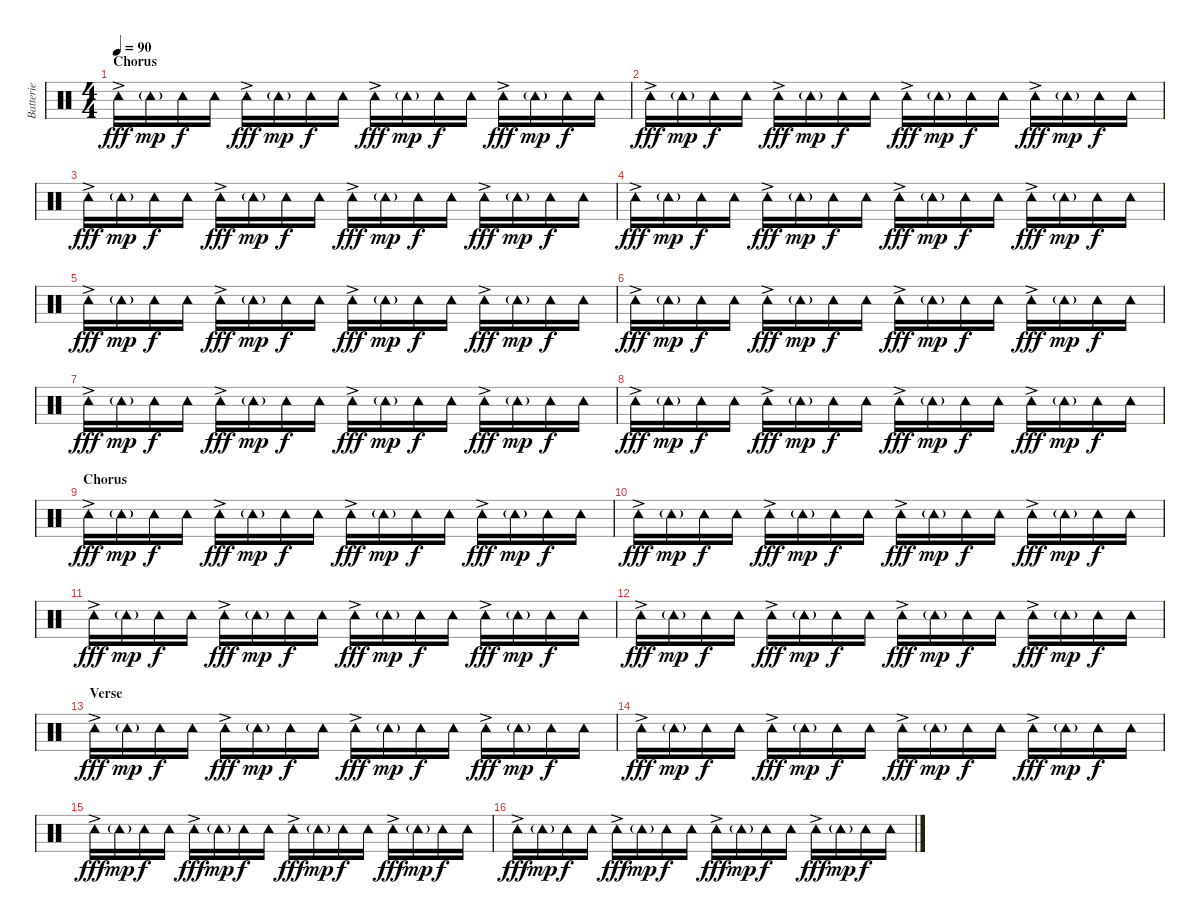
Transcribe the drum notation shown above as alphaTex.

\track ("Batterie" "Batterie") {instrument percussion}
\staff {score}
\articulation defaults
\ts (4 4)
\section ("" "Chorus")
\tempo 90
\clef neutral
\ks c "Tambourine (hit)"{ac}.16{dy fff} "Tambourine (hit)"{g}.16{dy mp} "Tambourine (hit)".16{dy f} "Tambourine (hit)".16 "Tambourine (hit)"{ac}.16{dy fff} "Tambourine (hit)"{g}.16{dy mp} "Tambourine (hit)".16{dy f} "Tambourine (hit)".16 "Tambourine (hit)"{ac}.16{dy fff} "Tambourine (hit)"{g}.16{dy mp} "Tambourine (hit)".16{dy f} "Tambourine (hit)".16 "Tambourine (hit)"{ac}.16{dy fff} "Tambourine (hit)"{g}.16{dy mp} "Tambourine (hit)".16{dy f} "Tambourine (hit)".16
|
"Tambourine (hit)"{ac}.16{dy fff} "Tambourine (hit)"{g}.16{dy mp} "Tambourine (hit)".16{dy f} "Tambourine (hit)".16 "Tambourine (hit)"{ac}.16{dy fff} "Tambourine (hit)"{g}.16{dy mp} "Tambourine (hit)".16{dy f} "Tambourine (hit)".16 "Tambourine (hit)"{ac}.16{dy fff} "Tambourine (hit)"{g}.16{dy mp} "Tambourine (hit)".16{dy f} "Tambourine (hit)".16 "Tambourine (hit)"{ac}.16{dy fff} "Tambourine (hit)"{g}.16{dy mp} "Tambourine (hit)".16{dy f} "Tambourine (hit)".16 |
"Tambourine (hit)"{ac}.16{dy fff} "Tambourine (hit)"{g}.16{dy mp} "Tambourine (hit)".16{dy f} "Tambourine (hit)".16 "Tambourine (hit)"{ac}.16{dy fff} "Tambourine (hit)"{g}.16{dy mp} "Tambourine (hit)".16{dy f} "Tambourine (hit)".16 "Tambourine (hit)"{ac}.16{dy fff} "Tambourine (hit)"{g}.16{dy mp} "Tambourine (hit)".16{dy f} "Tambourine (hit)".16 "Tambourine (hit)"{ac}.16{dy fff} "Tambourine (hit)"{g}.16{dy mp} "Tambourine (hit)".16{dy f} "Tambourine (hit)".16 |
"Tambourine (hit)"{ac}.16{dy fff} "Tambourine (hit)"{g}.16{dy mp} "Tambourine (hit)".16{dy f} "Tambourine (hit)".16 "Tambourine (hit)"{ac}.16{dy fff} "Tambourine (hit)"{g}.16{dy mp} "Tambourine (hit)".16{dy f} "Tambourine (hit)".16 "Tambourine (hit)"{ac}.16{dy fff} "Tambourine (hit)"{g}.16{dy mp} "Tambourine (hit)".16{dy f} "Tambourine (hit)".16 "Tambourine (hit)"{ac}.16{dy fff} "Tambourine (hit)"{g}.16{dy mp} "Tambourine (hit)".16{dy f} "Tambourine (hit)".16 |
\section ("" "")
"Tambourine (hit)"{ac}.16{dy fff} "Tambourine (hit)"{g}.16{dy mp} "Tambourine (hit)".16{dy f} "Tambourine (hit)".16 "Tambourine (hit)"{ac}.16{dy fff} "Tambourine (hit)"{g}.16{dy mp} "Tambourine (hit)".16{dy f} "Tambourine (hit)".16 "Tambourine (hit)"{ac}.16{dy fff} "Tambourine (hit)"{g}.16{dy mp} "Tambourine (hit)".16{dy f} "Tambourine (hit)".16 "Tambourine (hit)"{ac}.16{dy fff} "Tambourine (hit)"{g}.16{dy mp} "Tambourine (hit)".16{dy f} "Tambourine (hit)".16 |
"Tambourine (hit)"{ac}.16{dy fff} "Tambourine (hit)"{g}.16{dy mp} "Tambourine (hit)".16{dy f} "Tambourine (hit)".16 "Tambourine (hit)"{ac}.16{dy fff} "Tambourine (hit)"{g}.16{dy mp} "Tambourine (hit)".16{dy f} "Tambourine (hit)".16 "Tambourine (hit)"{ac}.16{dy fff} "Tambourine (hit)"{g}.16{dy mp} "Tambourine (hit)".16{dy f} "Tambourine (hit)".16 "Tambourine (hit)"{ac}.16{dy fff} "Tambourine (hit)"{g}.16{dy mp} "Tambourine (hit)".16{dy f} "Tambourine (hit)".16 |
"Tambourine (hit)"{ac}.16{dy fff} "Tambourine (hit)"{g}.16{dy mp} "Tambourine (hit)".16{dy f} "Tambourine (hit)".16 "Tambourine (hit)"{ac}.16{dy fff} "Tambourine (hit)"{g}.16{dy mp} "Tambourine (hit)".16{dy f} "Tambourine (hit)".16 "Tambourine (hit)"{ac}.16{dy fff} "Tambourine (hit)"{g}.16{dy mp} "Tambourine (hit)".16{dy f} "Tambourine (hit)".16 "Tambourine (hit)"{ac}.16{dy fff} "Tambourine (hit)"{g}.16{dy mp} "Tambourine (hit)".16{dy f} "Tambourine (hit)".16 |
"Tambourine (hit)"{ac}.16{dy fff} "Tambourine (hit)"{g}.16{dy mp} "Tambourine (hit)".16{dy f} "Tambourine (hit)".16 "Tambourine (hit)"{ac}.16{dy fff} "Tambourine (hit)"{g}.16{dy mp} "Tambourine (hit)".16{dy f} "Tambourine (hit)".16 "Tambourine (hit)"{ac}.16{dy fff} "Tambourine (hit)"{g}.16{dy mp} "Tambourine (hit)".16{dy f} "Tambourine (hit)".16 "Tambourine (hit)"{ac}.16{dy fff} "Tambourine (hit)"{g}.16{dy mp} "Tambourine (hit)".16{dy f} "Tambourine (hit)".16 |
\section ("" "Chorus")
"Tambourine (hit)"{ac}.16{dy fff} "Tambourine (hit)"{g}.16{dy mp} "Tambourine (hit)".16{dy f} "Tambourine (hit)".16 "Tambourine (hit)"{ac}.16{dy fff} "Tambourine (hit)"{g}.16{dy mp} "Tambourine (hit)".16{dy f} "Tambourine (hit)".16 "Tambourine (hit)"{ac}.16{dy fff} "Tambourine (hit)"{g}.16{dy mp} "Tambourine (hit)".16{dy f} "Tambourine (hit)".16 "Tambourine (hit)"{ac}.16{dy fff} "Tambourine (hit)"{g}.16{dy mp} "Tambourine (hit)".16{dy f} "Tambourine (hit)".16 |
"Tambourine (hit)"{ac}.16{dy fff} "Tambourine (hit)"{g}.16{dy mp} "Tambourine (hit)".16{dy f} "Tambourine (hit)".16 "Tambourine (hit)"{ac}.16{dy fff} "Tambourine (hit)"{g}.16{dy mp} "Tambourine (hit)".16{dy f} "Tambourine (hit)".16 "Tambourine (hit)"{ac}.16{dy fff} "Tambourine (hit)"{g}.16{dy mp} "Tambourine (hit)".16{dy f} "Tambourine (hit)".16 "Tambourine (hit)"{ac}.16{dy fff} "Tambourine (hit)"{g}.16{dy mp} "Tambourine (hit)".16{dy f} "Tambourine (hit)".16 |
"Tambourine (hit)"{ac}.16{dy fff} "Tambourine (hit)"{g}.16{dy mp} "Tambourine (hit)".16{dy f} "Tambourine (hit)".16 "Tambourine (hit)"{ac}.16{dy fff} "Tambourine (hit)"{g}.16{dy mp} "Tambourine (hit)".16{dy f} "Tambourine (hit)".16 "Tambourine (hit)"{ac}.16{dy fff} "Tambourine (hit)"{g}.16{dy mp} "Tambourine (hit)".16{dy f} "Tambourine (hit)".16 "Tambourine (hit)"{ac}.16{dy fff} "Tambourine (hit)"{g}.16{dy mp} "Tambourine (hit)".16{dy f} "Tambourine (hit)".16 |
"Tambourine (hit)"{ac}.16{dy fff} "Tambourine (hit)"{g}.16{dy mp} "Tambourine (hit)".16{dy f} "Tambourine (hit)".16 "Tambourine (hit)"{ac}.16{dy fff} "Tambourine (hit)"{g}.16{dy mp} "Tambourine (hit)".16{dy f} "Tambourine (hit)".16 "Tambourine (hit)"{ac}.16{dy fff} "Tambourine (hit)"{g}.16{dy mp} "Tambourine (hit)".16{dy f} "Tambourine (hit)".16 "Tambourine (hit)"{ac}.16{dy fff} "Tambourine (hit)"{g}.16{dy mp} "Tambourine (hit)".16{dy f} "Tambourine (hit)".16 |
\section ("" "Verse")
"Tambourine (hit)"{ac}.16{dy fff} "Tambourine (hit)"{g}.16{dy mp} "Tambourine (hit)".16{dy f} "Tambourine (hit)".16 "Tambourine (hit)"{ac}.16{dy fff} "Tambourine (hit)"{g}.16{dy mp} "Tambourine (hit)".16{dy f} "Tambourine (hit)".16 "Tambourine (hit)"{ac}.16{dy fff} "Tambourine (hit)"{g}.16{dy mp} "Tambourine (hit)".16{dy f} "Tambourine (hit)".16 "Tambourine (hit)"{ac}.16{dy fff} "Tambourine (hit)"{g}.16{dy mp} "Tambourine (hit)".16{dy f} "Tambourine (hit)".16 |
"Tambourine (hit)"{ac}.16{dy fff} "Tambourine (hit)"{g}.16{dy mp} "Tambourine (hit)".16{dy f} "Tambourine (hit)".16 "Tambourine (hit)"{ac}.16{dy fff} "Tambourine (hit)"{g}.16{dy mp} "Tambourine (hit)".16{dy f} "Tambourine (hit)".16 "Tambourine (hit)"{ac}.16{dy fff} "Tambourine (hit)"{g}.16{dy mp} "Tambourine (hit)".16{dy f} "Tambourine (hit)".16 "Tambourine (hit)"{ac}.16{dy fff} "Tambourine (hit)"{g}.16{dy mp} "Tambourine (hit)".16{dy f} "Tambourine (hit)".16 |
"Tambourine (hit)"{ac}.16{dy fff} "Tambourine (hit)"{g}.16{dy mp} "Tambourine (hit)".16{dy f} "Tambourine (hit)".16 "Tambourine (hit)"{ac}.16{dy fff} "Tambourine (hit)"{g}.16{dy mp} "Tambourine (hit)".16{dy f} "Tambourine (hit)".16 "Tambourine (hit)"{ac}.16{dy fff} "Tambourine (hit)"{g}.16{dy mp} "Tambourine (hit)".16{dy f} "Tambourine (hit)".16 "Tambourine (hit)"{ac}.16{dy fff} "Tambourine (hit)"{g}.16{dy mp} "Tambourine (hit)".16{dy f} "Tambourine (hit)".16 |
"Tambourine (hit)"{ac}.16{dy fff} "Tambourine (hit)"{g}.16{dy mp} "Tambourine (hit)".16{dy f} "Tambourine (hit)".16 "Tambourine (hit)"{ac}.16{dy fff} "Tambourine (hit)"{g}.16{dy mp} "Tambourine (hit)".16{dy f} "Tambourine (hit)".16 "Tambourine (hit)"{ac}.16{dy fff} "Tambourine (hit)"{g}.16{dy mp} "Tambourine (hit)".16{dy f} "Tambourine (hit)".16 "Tambourine (hit)"{ac}.16{dy fff} "Tambourine (hit)"{g}.16{dy mp} "Tambourine (hit)".16{dy f} "Tambourine (hit)".16
